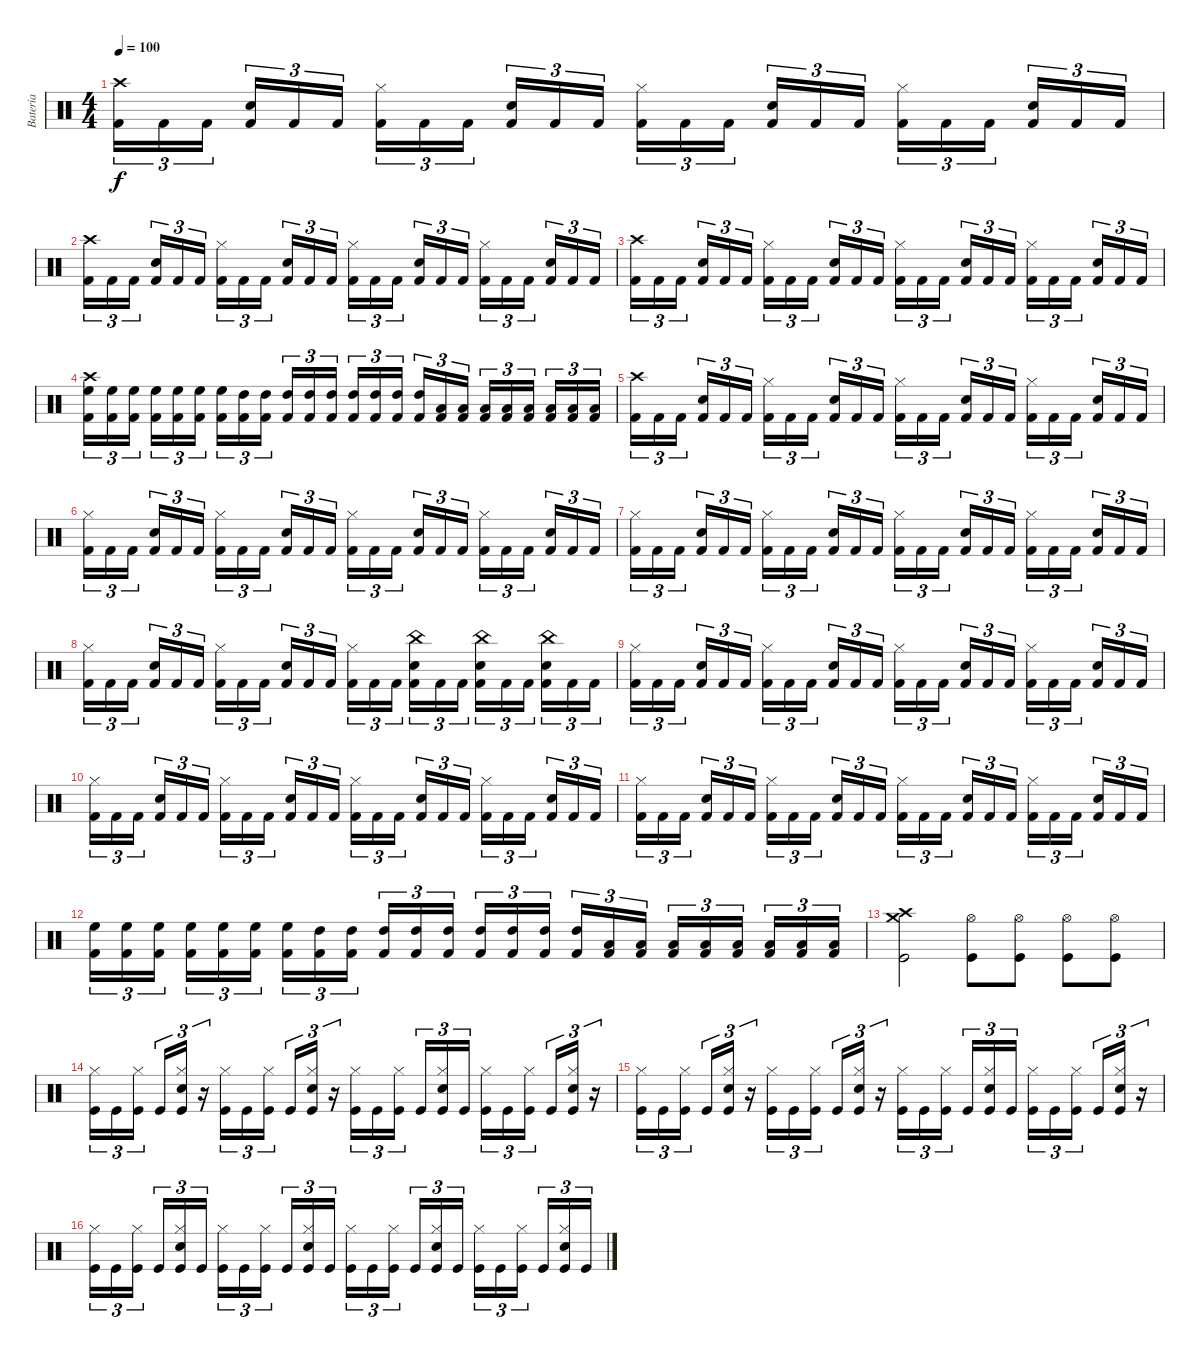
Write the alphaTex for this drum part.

\track ("Bateria" "Bateria") {instrument percussion}
\staff {score}
\articulation defaults
\ts (4 4)
\tempo 100
\clef neutral
\ks c
("Crash high (hit)" "Kick (hit) 2").16{tu (3 2) dy f} "Kick (hit) 2".16{tu (3 2)} "Kick (hit) 2".16{tu (3 2)} ("Snare (hit) 2" "Kick (hit) 2").16{tu (3 2)} "Kick (hit) 2".16{tu (3 2)} "Kick (hit) 2".16{tu (3 2)} ("Hi-Hat (closed)" "Kick (hit) 2").16{tu (3 2)} "Kick (hit) 2".16{tu (3 2)} "Kick (hit) 2".16{tu (3 2)} ("Snare (hit) 2" "Kick (hit) 2").16{tu (3 2)} "Kick (hit) 2".16{tu (3 2)} "Kick (hit) 2".16{tu (3 2)} ("Hi-Hat (closed)" "Kick (hit) 2").16{tu (3 2)} "Kick (hit) 2".16{tu (3 2)} "Kick (hit) 2".16{tu (3 2)} ("Snare (hit) 2" "Kick (hit) 2").16{tu (3 2)} "Kick (hit) 2".16{tu (3 2)} "Kick (hit) 2".16{tu (3 2)} ("Hi-Hat (closed)" "Kick (hit) 2").16{tu (3 2)} "Kick (hit) 2".16{tu (3 2)} "Kick (hit) 2".16{tu (3 2)} ("Snare (hit) 2" "Kick (hit) 2").16{tu (3 2)} "Kick (hit) 2".16{tu (3 2)} "Kick (hit) 2".16{tu (3 2)} |
("Crash high (hit)" "Kick (hit) 2").16{tu (3 2)} "Kick (hit) 2".16{tu (3 2)} "Kick (hit) 2".16{tu (3 2)} ("Snare (hit) 2" "Kick (hit) 2").16{tu (3 2)} "Kick (hit) 2".16{tu (3 2)} "Kick (hit) 2".16{tu (3 2)} ("Hi-Hat (closed)" "Kick (hit) 2").16{tu (3 2)} "Kick (hit) 2".16{tu (3 2)} "Kick (hit) 2".16{tu (3 2)} ("Snare (hit) 2" "Kick (hit) 2").16{tu (3 2)} "Kick (hit) 2".16{tu (3 2)} "Kick (hit) 2".16{tu (3 2)} ("Hi-Hat (closed)" "Kick (hit) 2").16{tu (3 2)} "Kick (hit) 2".16{tu (3 2)} "Kick (hit) 2".16{tu (3 2)} ("Snare (hit) 2" "Kick (hit) 2").16{tu (3 2)} "Kick (hit) 2".16{tu (3 2)} "Kick (hit) 2".16{tu (3 2)} ("Hi-Hat (closed)" "Kick (hit) 2").16{tu (3 2)} "Kick (hit) 2".16{tu (3 2)} "Kick (hit) 2".16{tu (3 2)} ("Snare (hit) 2" "Kick (hit) 2").16{tu (3 2)} "Kick (hit) 2".16{tu (3 2)} "Kick (hit) 2".16{tu (3 2)} |
("Crash high (hit)" "Kick (hit) 2").16{tu (3 2)} "Kick (hit) 2".16{tu (3 2)} "Kick (hit) 2".16{tu (3 2)} ("Snare (hit) 2" "Kick (hit) 2").16{tu (3 2)} "Kick (hit) 2".16{tu (3 2)} "Kick (hit) 2".16{tu (3 2)} ("Hi-Hat (closed)" "Kick (hit) 2").16{tu (3 2)} "Kick (hit) 2".16{tu (3 2)} "Kick (hit) 2".16{tu (3 2)} ("Snare (hit) 2" "Kick (hit) 2").16{tu (3 2)} "Kick (hit) 2".16{tu (3 2)} "Kick (hit) 2".16{tu (3 2)} ("Hi-Hat (closed)" "Kick (hit) 2").16{tu (3 2)} "Kick (hit) 2".16{tu (3 2)} "Kick (hit) 2".16{tu (3 2)} ("Snare (hit) 2" "Kick (hit) 2").16{tu (3 2)} "Kick (hit) 2".16{tu (3 2)} "Kick (hit) 2".16{tu (3 2)} ("Hi-Hat (closed)" "Kick (hit) 2").16{tu (3 2)} "Kick (hit) 2".16{tu (3 2)} "Kick (hit) 2".16{tu (3 2)} ("Snare (hit) 2" "Kick (hit) 2").16{tu (3 2)} "Kick (hit) 2".16{tu (3 2)} "Kick (hit) 2".16{tu (3 2)} |
("Crash high (hit)" "High Floor Tom (hit)" "Kick (hit) 2").16{tu (3 2)} ("High Floor Tom (hit)" "Kick (hit) 2").16{tu (3 2)} ("High Floor Tom (hit)" "Kick (hit) 2").16{tu (3 2)} ("High Floor Tom (hit)" "Kick (hit) 2").16{tu (3 2)} ("High Floor Tom (hit)" "Kick (hit) 2").16{tu (3 2)} ("High Floor Tom (hit)" "Kick (hit) 2").16{tu (3 2)} ("High Floor Tom (hit)" "Kick (hit) 2").16{tu (3 2)} ("High Tom (hit)" "Kick (hit) 2").16{tu (3 2)} ("High Tom (hit)" "Kick (hit) 2").16{tu (3 2)} ("High Tom (hit)" "Kick (hit) 2").16{tu (3 2)} ("High Tom (hit)" "Kick (hit) 2").16{tu (3 2)} ("High Tom (hit)" "Kick (hit) 2").16{tu (3 2)} ("High Tom (hit)" "Kick (hit) 2").16{tu (3 2)} ("High Tom (hit)" "Kick (hit) 2").16{tu (3 2)} ("High Tom (hit)" "Kick (hit) 2").16{tu (3 2)} ("High Tom (hit)" "Kick (hit) 2").16{tu (3 2)} ("Low Tom (hit)" "Kick (hit) 2").16{tu (3 2)} ("Low Tom (hit)" "Kick (hit) 2").16{tu (3 2)} ("Low Tom (hit)" "Kick (hit) 2").16{tu (3 2)} ("Low Tom (hit)" "Kick (hit) 2").16{tu (3 2)} ("Low Tom (hit)" "Kick (hit) 2").16{tu (3 2)} ("Low Tom (hit)" "Kick (hit) 2").16{tu (3 2)} ("Low Tom (hit)" "Kick (hit) 2").16{tu (3 2)} ("Low Tom (hit)" "Kick (hit) 2").16{tu (3 2)} |
("Crash high (hit)" "Kick (hit) 2").16{tu (3 2)} "Kick (hit) 2".16{tu (3 2)} "Kick (hit) 2".16{tu (3 2)} ("Snare (hit) 2" "Kick (hit) 2").16{tu (3 2)} "Kick (hit) 2".16{tu (3 2)} "Kick (hit) 2".16{tu (3 2)} ("Hi-Hat (closed)" "Kick (hit) 2").16{tu (3 2)} "Kick (hit) 2".16{tu (3 2)} "Kick (hit) 2".16{tu (3 2)} ("Snare (hit) 2" "Kick (hit) 2").16{tu (3 2)} "Kick (hit) 2".16{tu (3 2)} "Kick (hit) 2".16{tu (3 2)} ("Hi-Hat (closed)" "Kick (hit) 2").16{tu (3 2)} "Kick (hit) 2".16{tu (3 2)} "Kick (hit) 2".16{tu (3 2)} ("Snare (hit) 2" "Kick (hit) 2").16{tu (3 2)} "Kick (hit) 2".16{tu (3 2)} "Kick (hit) 2".16{tu (3 2)} ("Hi-Hat (closed)" "Kick (hit) 2").16{tu (3 2)} "Kick (hit) 2".16{tu (3 2)} "Kick (hit) 2".16{tu (3 2)} ("Snare (hit) 2" "Kick (hit) 2").16{tu (3 2)} "Kick (hit) 2".16{tu (3 2)} "Kick (hit) 2".16{tu (3 2)} |
("Hi-Hat (closed)" "Kick (hit) 2").16{tu (3 2)} "Kick (hit) 2".16{tu (3 2)} "Kick (hit) 2".16{tu (3 2)} ("Snare (hit) 2" "Kick (hit) 2").16{tu (3 2)} "Kick (hit) 2".16{tu (3 2)} "Kick (hit) 2".16{tu (3 2)} ("Hi-Hat (closed)" "Kick (hit) 2").16{tu (3 2)} "Kick (hit) 2".16{tu (3 2)} "Kick (hit) 2".16{tu (3 2)} ("Snare (hit) 2" "Kick (hit) 2").16{tu (3 2)} "Kick (hit) 2".16{tu (3 2)} "Kick (hit) 2".16{tu (3 2)} ("Hi-Hat (closed)" "Kick (hit) 2").16{tu (3 2)} "Kick (hit) 2".16{tu (3 2)} "Kick (hit) 2".16{tu (3 2)} ("Snare (hit) 2" "Kick (hit) 2").16{tu (3 2)} "Kick (hit) 2".16{tu (3 2)} "Kick (hit) 2".16{tu (3 2)} ("Hi-Hat (closed)" "Kick (hit) 2").16{tu (3 2)} "Kick (hit) 2".16{tu (3 2)} "Kick (hit) 2".16{tu (3 2)} ("Snare (hit) 2" "Kick (hit) 2").16{tu (3 2)} "Kick (hit) 2".16{tu (3 2)} "Kick (hit) 2".16{tu (3 2)} |
("Hi-Hat (closed)" "Kick (hit) 2").16{tu (3 2)} "Kick (hit) 2".16{tu (3 2)} "Kick (hit) 2".16{tu (3 2)} ("Snare (hit) 2" "Kick (hit) 2").16{tu (3 2)} "Kick (hit) 2".16{tu (3 2)} "Kick (hit) 2".16{tu (3 2)} ("Hi-Hat (closed)" "Kick (hit) 2").16{tu (3 2)} "Kick (hit) 2".16{tu (3 2)} "Kick (hit) 2".16{tu (3 2)} ("Snare (hit) 2" "Kick (hit) 2").16{tu (3 2)} "Kick (hit) 2".16{tu (3 2)} "Kick (hit) 2".16{tu (3 2)} ("Hi-Hat (closed)" "Kick (hit) 2").16{tu (3 2)} "Kick (hit) 2".16{tu (3 2)} "Kick (hit) 2".16{tu (3 2)} ("Snare (hit) 2" "Kick (hit) 2").16{tu (3 2)} "Kick (hit) 2".16{tu (3 2)} "Kick (hit) 2".16{tu (3 2)} ("Hi-Hat (closed)" "Kick (hit) 2").16{tu (3 2)} "Kick (hit) 2".16{tu (3 2)} "Kick (hit) 2".16{tu (3 2)} ("Snare (hit) 2" "Kick (hit) 2").16{tu (3 2)} "Kick (hit) 2".16{tu (3 2)} "Kick (hit) 2".16{tu (3 2)} |
("Hi-Hat (closed)" "Kick (hit) 2").16{tu (3 2)} "Kick (hit) 2".16{tu (3 2)} "Kick (hit) 2".16{tu (3 2)} ("Snare (hit) 2" "Kick (hit) 2").16{tu (3 2)} "Kick (hit) 2".16{tu (3 2)} "Kick (hit) 2".16{tu (3 2)} ("Hi-Hat (closed)" "Kick (hit) 2").16{tu (3 2)} "Kick (hit) 2".16{tu (3 2)} "Kick (hit) 2".16{tu (3 2)} ("Snare (hit) 2" "Kick (hit) 2").16{tu (3 2)} "Kick (hit) 2".16{tu (3 2)} "Kick (hit) 2".16{tu (3 2)} ("Hi-Hat (closed)" "Kick (hit) 2").16{tu (3 2)} "Kick (hit) 2".16{tu (3 2)} "Kick (hit) 2".16{tu (3 2)} ("China (hit)" "Snare (hit) 2" "Kick (hit) 2").16{tu (3 2)} "Kick (hit) 2".16{tu (3 2)} "Kick (hit) 2".16{tu (3 2)} ("China (hit)" "Snare (hit) 2" "Kick (hit) 2").16{tu (3 2)} "Kick (hit) 2".16{tu (3 2)} "Kick (hit) 2".16{tu (3 2)} ("China (hit)" "Snare (hit) 2" "Kick (hit) 2").16{tu (3 2)} "Kick (hit) 2".16{tu (3 2)} "Kick (hit) 2".16{tu (3 2)} |
("Hi-Hat (closed)" "Kick (hit) 2").16{tu (3 2)} "Kick (hit) 2".16{tu (3 2)} "Kick (hit) 2".16{tu (3 2)} ("Snare (hit) 2" "Kick (hit) 2").16{tu (3 2)} "Kick (hit) 2".16{tu (3 2)} "Kick (hit) 2".16{tu (3 2)} ("Hi-Hat (closed)" "Kick (hit) 2").16{tu (3 2)} "Kick (hit) 2".16{tu (3 2)} "Kick (hit) 2".16{tu (3 2)} ("Snare (hit) 2" "Kick (hit) 2").16{tu (3 2)} "Kick (hit) 2".16{tu (3 2)} "Kick (hit) 2".16{tu (3 2)} ("Hi-Hat (closed)" "Kick (hit) 2").16{tu (3 2)} "Kick (hit) 2".16{tu (3 2)} "Kick (hit) 2".16{tu (3 2)} ("Snare (hit) 2" "Kick (hit) 2").16{tu (3 2)} "Kick (hit) 2".16{tu (3 2)} "Kick (hit) 2".16{tu (3 2)} ("Hi-Hat (closed)" "Kick (hit) 2").16{tu (3 2)} "Kick (hit) 2".16{tu (3 2)} "Kick (hit) 2".16{tu (3 2)} ("Snare (hit) 2" "Kick (hit) 2").16{tu (3 2)} "Kick (hit) 2".16{tu (3 2)} "Kick (hit) 2".16{tu (3 2)} |
("Hi-Hat (closed)" "Kick (hit) 2").16{tu (3 2)} "Kick (hit) 2".16{tu (3 2)} "Kick (hit) 2".16{tu (3 2)} ("Snare (hit) 2" "Kick (hit) 2").16{tu (3 2)} "Kick (hit) 2".16{tu (3 2)} "Kick (hit) 2".16{tu (3 2)} ("Hi-Hat (closed)" "Kick (hit) 2").16{tu (3 2)} "Kick (hit) 2".16{tu (3 2)} "Kick (hit) 2".16{tu (3 2)} ("Snare (hit) 2" "Kick (hit) 2").16{tu (3 2)} "Kick (hit) 2".16{tu (3 2)} "Kick (hit) 2".16{tu (3 2)} ("Hi-Hat (closed)" "Kick (hit) 2").16{tu (3 2)} "Kick (hit) 2".16{tu (3 2)} "Kick (hit) 2".16{tu (3 2)} ("Snare (hit) 2" "Kick (hit) 2").16{tu (3 2)} "Kick (hit) 2".16{tu (3 2)} "Kick (hit) 2".16{tu (3 2)} ("Hi-Hat (closed)" "Kick (hit) 2").16{tu (3 2)} "Kick (hit) 2".16{tu (3 2)} "Kick (hit) 2".16{tu (3 2)} ("Snare (hit) 2" "Kick (hit) 2").16{tu (3 2)} "Kick (hit) 2".16{tu (3 2)} "Kick (hit) 2".16{tu (3 2)} |
("Hi-Hat (closed)" "Kick (hit) 2").16{tu (3 2)} "Kick (hit) 2".16{tu (3 2)} "Kick (hit) 2".16{tu (3 2)} ("Snare (hit) 2" "Kick (hit) 2").16{tu (3 2)} "Kick (hit) 2".16{tu (3 2)} "Kick (hit) 2".16{tu (3 2)} ("Hi-Hat (closed)" "Kick (hit) 2").16{tu (3 2)} "Kick (hit) 2".16{tu (3 2)} "Kick (hit) 2".16{tu (3 2)} ("Snare (hit) 2" "Kick (hit) 2").16{tu (3 2)} "Kick (hit) 2".16{tu (3 2)} "Kick (hit) 2".16{tu (3 2)} ("Hi-Hat (closed)" "Kick (hit) 2").16{tu (3 2)} "Kick (hit) 2".16{tu (3 2)} "Kick (hit) 2".16{tu (3 2)} ("Snare (hit) 2" "Kick (hit) 2").16{tu (3 2)} "Kick (hit) 2".16{tu (3 2)} "Kick (hit) 2".16{tu (3 2)} ("Hi-Hat (closed)" "Kick (hit) 2").16{tu (3 2)} "Kick (hit) 2".16{tu (3 2)} "Kick (hit) 2".16{tu (3 2)} ("Snare (hit) 2" "Kick (hit) 2").16{tu (3 2)} "Kick (hit) 2".16{tu (3 2)} "Kick (hit) 2".16{tu (3 2)} |
("High Floor Tom (hit)" "Kick (hit) 2").16{tu (3 2)} ("High Floor Tom (hit)" "Kick (hit) 2").16{tu (3 2)} ("High Floor Tom (hit)" "Kick (hit) 2").16{tu (3 2)} ("High Floor Tom (hit)" "Kick (hit) 2").16{tu (3 2)} ("High Floor Tom (hit)" "Kick (hit) 2").16{tu (3 2)} ("High Floor Tom (hit)" "Kick (hit) 2").16{tu (3 2)} ("High Floor Tom (hit)" "Kick (hit) 2").16{tu (3 2)} ("High Tom (hit)" "Kick (hit) 2").16{tu (3 2)} ("High Tom (hit)" "Kick (hit) 2").16{tu (3 2)} ("High Tom (hit)" "Kick (hit) 2").16{tu (3 2)} ("High Tom (hit)" "Kick (hit) 2").16{tu (3 2)} ("High Tom (hit)" "Kick (hit) 2").16{tu (3 2)} ("High Tom (hit)" "Kick (hit) 2").16{tu (3 2)} ("High Tom (hit)" "Kick (hit) 2").16{tu (3 2)} ("High Tom (hit)" "Kick (hit) 2").16{tu (3 2)} ("High Tom (hit)" "Kick (hit) 2").16{tu (3 2)} ("Low Tom (hit)" "Kick (hit) 2").16{tu (3 2)} ("Low Tom (hit)" "Kick (hit) 2").16{tu (3 2)} ("Low Tom (hit)" "Kick (hit) 2").16{tu (3 2)} ("Low Tom (hit)" "Kick (hit) 2").16{tu (3 2)} ("Low Tom (hit)" "Kick (hit) 2").16{tu (3 2)} ("Low Tom (hit)" "Kick (hit) 2").16{tu (3 2)} ("Low Tom (hit)" "Kick (hit) 2").16{tu (3 2)} ("Low Tom (hit)" "Kick (hit) 2").16{tu (3 2)} |
("Crash high (hit)" "Crash medium (hit)" "Kick (hit)").2 ("Hi-Hat (open)" "Kick (hit)").8 ("Hi-Hat (open)" "Kick (hit)").8 ("Hi-Hat (open)" "Kick (hit)").8 ("Hi-Hat (open)" "Kick (hit)").8 |
("Kick (hit)" "Hi-Hat (closed)").16{tu (3 2)} "Kick (hit)".16{tu (3 2)} ("Kick (hit)" "Hi-Hat (closed)").16{tu (3 2)} "Kick (hit)".16{tu (3 2)} ("Kick (hit)" "Hi-Hat (closed)" "Snare (hit) 2").16{tu (3 2)} r.16{tu (3 2)} ("Kick (hit)" "Hi-Hat (closed)").16{tu (3 2)} "Kick (hit)".16{tu (3 2)} ("Kick (hit)" "Hi-Hat (closed)").16{tu (3 2)} "Kick (hit)".16{tu (3 2)} ("Kick (hit)" "Hi-Hat (closed)" "Snare (hit) 2").16{tu (3 2)} r.16{tu (3 2)} ("Kick (hit)" "Hi-Hat (closed)").16{tu (3 2)} "Kick (hit)".16{tu (3 2)} ("Kick (hit)" "Hi-Hat (closed)").16{tu (3 2)} "Kick (hit)".16{tu (3 2)} ("Kick (hit)" "Hi-Hat (closed)" "Snare (hit) 2").16{tu (3 2)} "Kick (hit)".16{tu (3 2)} ("Kick (hit)" "Hi-Hat (closed)").16{tu (3 2)} "Kick (hit)".16{tu (3 2)} ("Kick (hit)" "Hi-Hat (closed)").16{tu (3 2)} "Kick (hit)".16{tu (3 2)} ("Kick (hit)" "Hi-Hat (closed)" "Snare (hit) 2").16{tu (3 2)} r.16{tu (3 2)} |
("Kick (hit)" "Hi-Hat (closed)").16{tu (3 2)} "Kick (hit)".16{tu (3 2)} ("Kick (hit)" "Hi-Hat (closed)").16{tu (3 2)} "Kick (hit)".16{tu (3 2)} ("Kick (hit)" "Hi-Hat (closed)" "Snare (hit) 2").16{tu (3 2)} r.16{tu (3 2)} ("Kick (hit)" "Hi-Hat (closed)").16{tu (3 2)} "Kick (hit)".16{tu (3 2)} ("Kick (hit)" "Hi-Hat (closed)").16{tu (3 2)} "Kick (hit)".16{tu (3 2)} ("Kick (hit)" "Hi-Hat (closed)" "Snare (hit) 2").16{tu (3 2)} r.16{tu (3 2)} ("Kick (hit)" "Hi-Hat (closed)").16{tu (3 2)} "Kick (hit)".16{tu (3 2)} ("Kick (hit)" "Hi-Hat (closed)").16{tu (3 2)} "Kick (hit)".16{tu (3 2)} ("Kick (hit)" "Hi-Hat (closed)" "Snare (hit) 2").16{tu (3 2)} "Kick (hit)".16{tu (3 2)} ("Kick (hit)" "Hi-Hat (closed)").16{tu (3 2)} "Kick (hit)".16{tu (3 2)} ("Kick (hit)" "Hi-Hat (closed)").16{tu (3 2)} "Kick (hit)".16{tu (3 2)} ("Kick (hit)" "Hi-Hat (closed)" "Snare (hit) 2").16{tu (3 2)} r.16{tu (3 2)} |
("Kick (hit)" "Hi-Hat (closed)").16{tu (3 2)} "Kick (hit)".16{tu (3 2)} ("Kick (hit)" "Hi-Hat (closed)").16{tu (3 2)} "Kick (hit)".16{tu (3 2)} ("Kick (hit)" "Hi-Hat (closed)" "Snare (hit) 2").16{tu (3 2)} "Kick (hit)".16{tu (3 2)} ("Kick (hit)" "Hi-Hat (closed)").16{tu (3 2)} "Kick (hit)".16{tu (3 2)} ("Kick (hit)" "Hi-Hat (closed)").16{tu (3 2)} "Kick (hit)".16{tu (3 2)} ("Kick (hit)" "Hi-Hat (closed)" "Snare (hit) 2").16{tu (3 2)} "Kick (hit)".16{tu (3 2)} ("Kick (hit)" "Hi-Hat (closed)").16{tu (3 2)} "Kick (hit)".16{tu (3 2)} ("Kick (hit)" "Hi-Hat (closed)").16{tu (3 2)} "Kick (hit)".16{tu (3 2)} ("Kick (hit)" "Hi-Hat (closed)" "Snare (hit) 2").16{tu (3 2)} "Kick (hit)".16{tu (3 2)} ("Kick (hit)" "Hi-Hat (closed)").16{tu (3 2)} "Kick (hit)".16{tu (3 2)} ("Kick (hit)" "Hi-Hat (closed)").16{tu (3 2)} "Kick (hit)".16{tu (3 2)} ("Kick (hit)" "Hi-Hat (closed)" "Snare (hit) 2").16{tu (3 2)} "Kick (hit)".16{tu (3 2)}
